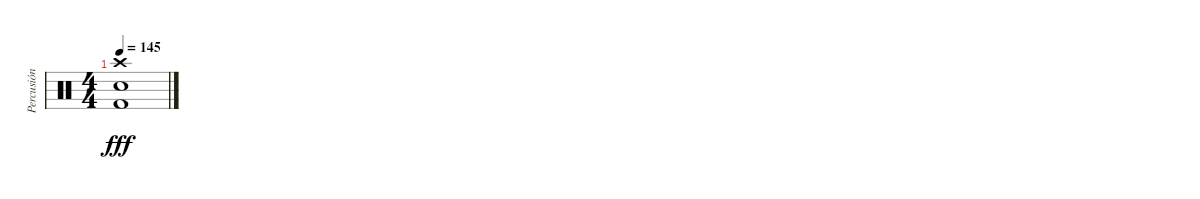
\track ("Percusión" "Percusión") {instrument percussion}
\staff {score}
\articulation defaults
\ts (4 4)
\tempo 145
\clef neutral
\ks c
("Crash high (hit)" "Snare (hit) 2" "Kick (hit) 2").1{dy fff}
